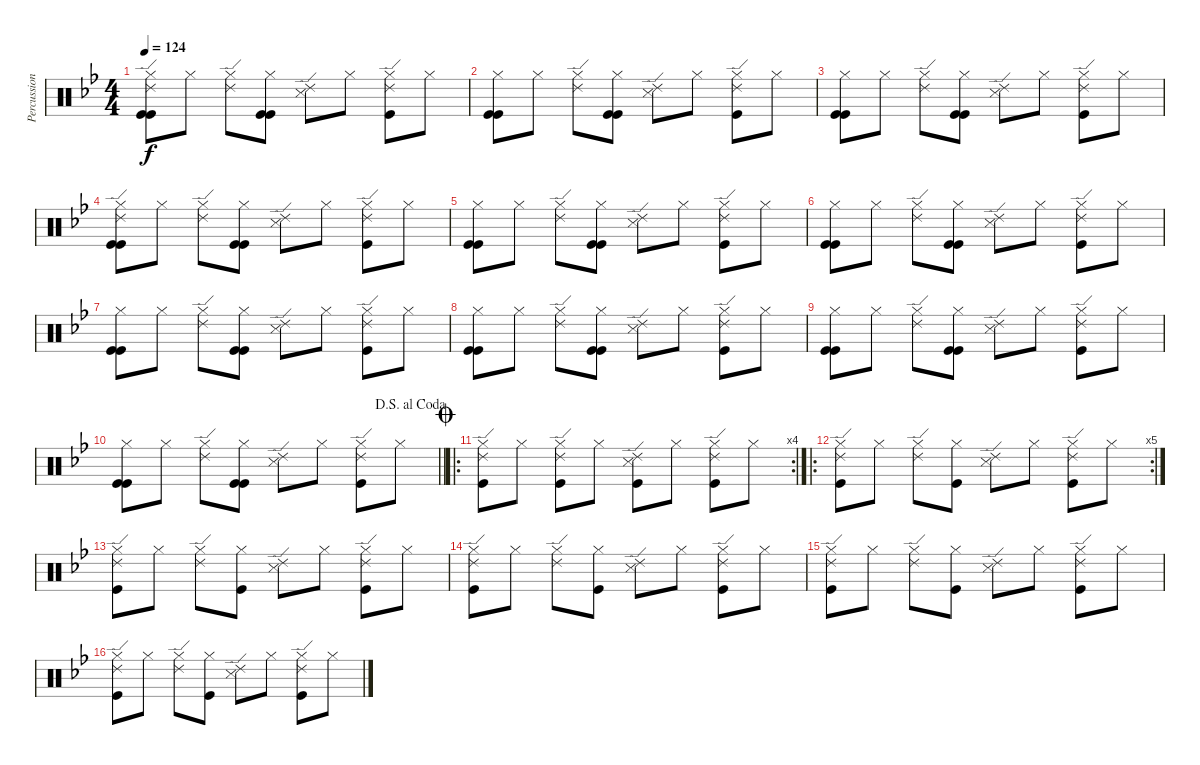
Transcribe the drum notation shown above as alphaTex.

\track ("Percussion" "Percussion") {instrument percussion}
\staff {score}
\articulation defaults
\ts (4 4)
\tempo 124
\clef neutral
\ks gminor
("Ride (edge) 2" "Hi-Hat (closed)" "Kick (hit)" "Kick (hit)").8{dy f} "Hi-Hat (closed)".8 ("Ride (edge) 2" "Hi-Hat (closed)").8 ("Hi-Hat (closed)" "Kick (hit)" "Kick (hit)").8 ("Ride (edge) 2" "Snare (side stick) 3").8 "Hi-Hat (closed)".8 ("Ride (edge) 2" "Hi-Hat (closed)" "Kick (hit)").8 "Hi-Hat (closed)".8 |
("Hi-Hat (closed)" "Kick (hit)" "Kick (hit)").8 "Hi-Hat (closed)".8 ("Ride (edge) 2" "Hi-Hat (closed)").8 ("Hi-Hat (closed)" "Kick (hit)" "Kick (hit)").8 ("Ride (edge) 2" "Snare (side stick) 3").8 "Hi-Hat (closed)".8 ("Ride (edge) 2" "Hi-Hat (closed)" "Kick (hit)").8 "Hi-Hat (closed)".8 |
("Hi-Hat (closed)" "Kick (hit)" "Kick (hit)").8 "Hi-Hat (closed)".8 ("Ride (edge) 2" "Hi-Hat (closed)").8 ("Hi-Hat (closed)" "Kick (hit)" "Kick (hit)").8 ("Ride (edge) 2" "Snare (side stick) 3").8 "Hi-Hat (closed)".8 ("Ride (edge) 2" "Hi-Hat (closed)" "Kick (hit)").8 "Hi-Hat (closed)".8 |
("Ride (edge) 2" "Hi-Hat (closed)" "Kick (hit)" "Kick (hit)").8 "Hi-Hat (closed)".8 ("Ride (edge) 2" "Hi-Hat (closed)").8 ("Hi-Hat (closed)" "Kick (hit)" "Kick (hit)").8 ("Ride (edge) 2" "Snare (side stick) 3").8 "Hi-Hat (closed)".8 ("Ride (edge) 2" "Hi-Hat (closed)" "Kick (hit)").8 "Hi-Hat (closed)".8 |
("Hi-Hat (closed)" "Kick (hit)" "Kick (hit)").8 "Hi-Hat (closed)".8 ("Ride (edge) 2" "Hi-Hat (closed)").8 ("Hi-Hat (closed)" "Kick (hit)" "Kick (hit)").8 ("Ride (edge) 2" "Snare (side stick) 3").8 "Hi-Hat (closed)".8 ("Ride (edge) 2" "Hi-Hat (closed)" "Kick (hit)").8 "Hi-Hat (closed)".8 |
("Hi-Hat (closed)" "Kick (hit)" "Kick (hit)").8 "Hi-Hat (closed)".8 ("Ride (edge) 2" "Hi-Hat (closed)").8 ("Hi-Hat (closed)" "Kick (hit)" "Kick (hit)").8 ("Ride (edge) 2" "Snare (side stick) 3").8 "Hi-Hat (closed)".8 ("Ride (edge) 2" "Hi-Hat (closed)" "Kick (hit)").8 "Hi-Hat (closed)".8 |
("Hi-Hat (closed)" "Kick (hit)" "Kick (hit)").8 "Hi-Hat (closed)".8 ("Ride (edge) 2" "Hi-Hat (closed)").8 ("Hi-Hat (closed)" "Kick (hit)" "Kick (hit)").8 ("Ride (edge) 2" "Snare (side stick) 3").8 "Hi-Hat (closed)".8 ("Ride (edge) 2" "Hi-Hat (closed)" "Kick (hit)").8 "Hi-Hat (closed)".8 |
("Hi-Hat (closed)" "Kick (hit)" "Kick (hit)").8 "Hi-Hat (closed)".8 ("Ride (edge) 2" "Hi-Hat (closed)").8 ("Hi-Hat (closed)" "Kick (hit)" "Kick (hit)").8 ("Ride (edge) 2" "Snare (side stick) 3").8 "Hi-Hat (closed)".8 ("Ride (edge) 2" "Hi-Hat (closed)" "Kick (hit)").8 "Hi-Hat (closed)".8 |
("Hi-Hat (closed)" "Kick (hit)" "Kick (hit)").8 "Hi-Hat (closed)".8 ("Ride (edge) 2" "Hi-Hat (closed)").8 ("Hi-Hat (closed)" "Kick (hit)" "Kick (hit)").8 ("Ride (edge) 2" "Snare (side stick) 3").8 "Hi-Hat (closed)".8 ("Ride (edge) 2" "Hi-Hat (closed)" "Kick (hit)").8 "Hi-Hat (closed)".8 |
\jump dalsegnoalcoda
\barLineRight lightlight
("Hi-Hat (closed)" "Kick (hit)" "Kick (hit)").8 "Hi-Hat (closed)".8 ("Ride (edge) 2" "Hi-Hat (closed)").8 ("Hi-Hat (closed)" "Kick (hit)" "Kick (hit)").8 ("Ride (edge) 2" "Snare (side stick) 3").8 "Hi-Hat (closed)".8 ("Ride (edge) 2" "Hi-Hat (closed)" "Kick (hit)").8 "Hi-Hat (closed)".8 |
\ro
\rc 4
\jump coda
("Ride (edge) 2" "Hi-Hat (closed)" "Kick (hit)").8 "Hi-Hat (closed)".8 ("Ride (edge) 2" "Hi-Hat (closed)" "Kick (hit)").8 "Hi-Hat (closed)".8 ("Ride (edge) 2" "Snare (side stick) 3" "Kick (hit)").8 "Hi-Hat (closed)".8 ("Ride (edge) 2" "Hi-Hat (closed)" "Kick (hit)").8 "Hi-Hat (closed)".8 |
\ro
\rc 5
("Ride (edge) 2" "Hi-Hat (closed)" "Kick (hit)").8 "Hi-Hat (closed)".8 ("Ride (edge) 2" "Hi-Hat (closed)").8 ("Hi-Hat (closed)" "Kick (hit)").8 ("Ride (edge) 2" "Snare (side stick) 3").8 "Hi-Hat (closed)".8 ("Ride (edge) 2" "Hi-Hat (closed)" "Kick (hit)").8 "Hi-Hat (closed)".8 |
("Ride (edge) 2" "Hi-Hat (closed)" "Kick (hit)").8 "Hi-Hat (closed)".8 ("Ride (edge) 2" "Hi-Hat (closed)").8 ("Hi-Hat (closed)" "Kick (hit)").8 ("Ride (edge) 2" "Snare (side stick) 3").8 "Hi-Hat (closed)".8 ("Ride (edge) 2" "Hi-Hat (closed)" "Kick (hit)").8 "Hi-Hat (closed)".8 |
("Ride (edge) 2" "Hi-Hat (closed)" "Kick (hit)").8 "Hi-Hat (closed)".8 ("Ride (edge) 2" "Hi-Hat (closed)").8 ("Hi-Hat (closed)" "Kick (hit)").8 ("Ride (edge) 2" "Snare (side stick) 3").8 "Hi-Hat (closed)".8 ("Ride (edge) 2" "Hi-Hat (closed)" "Kick (hit)").8 "Hi-Hat (closed)".8 |
("Ride (edge) 2" "Hi-Hat (closed)" "Kick (hit)").8 "Hi-Hat (closed)".8 ("Ride (edge) 2" "Hi-Hat (closed)").8 ("Hi-Hat (closed)" "Kick (hit)").8 ("Ride (edge) 2" "Snare (side stick) 3").8 "Hi-Hat (closed)".8 ("Ride (edge) 2" "Hi-Hat (closed)" "Kick (hit)").8 "Hi-Hat (closed)".8 |
("Ride (edge) 2" "Hi-Hat (closed)" "Kick (hit)").8 "Hi-Hat (closed)".8 ("Ride (edge) 2" "Hi-Hat (closed)").8 ("Hi-Hat (closed)" "Kick (hit)").8 ("Ride (edge) 2" "Snare (side stick) 3").8 "Hi-Hat (closed)".8 ("Ride (edge) 2" "Hi-Hat (closed)" "Kick (hit)").8 "Hi-Hat (closed)".8
